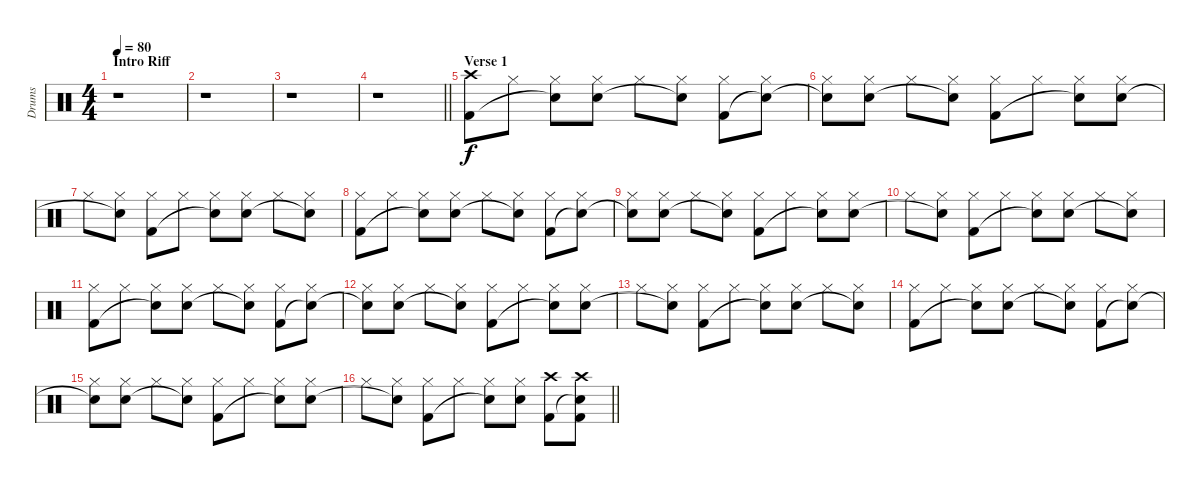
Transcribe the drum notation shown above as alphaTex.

\track ("Drums" "Drums") {instrument percussion}
\staff {score}
\articulation defaults
\ts (4 4)
\section ("" "Intro Riff")
\tempo 80
\clef neutral
\ks c
r.1{dy f} |
r.1 |
r.1 |
\barLineRight lightlight
r.1 |
\section ("" "Verse 1")
("Crash high (hit)" "Kick (hit) 2").8 "Hi-Hat (closed)".8 ("Hi-Hat (closed)" "Snare (hit)"{t}).8 ("Hi-Hat (closed)" "Electric Snare (hit)").8 "Hi-Hat (closed)".8 ("Hi-Hat (closed)" "Snare (hit)"{t}).8 ("Hi-Hat (closed)" "Kick (hit) 2").8 ("Hi-Hat (closed)" "Snare (hit)"{t}).8 |
("Hi-Hat (closed)" "Snare (hit)"{t}).8 ("Hi-Hat (closed)" "Electric Snare (hit)").8 "Hi-Hat (closed)".8 ("Hi-Hat (closed)" "Snare (hit)"{t}).8 ("Hi-Hat (closed)" "Kick (hit) 2").8 "Hi-Hat (closed)".8 ("Hi-Hat (closed)" "Snare (hit)"{t}).8 ("Hi-Hat (closed)" "Electric Snare (hit)").8 |
"Hi-Hat (closed)".8 ("Hi-Hat (closed)" "Snare (hit)"{t}).8 ("Hi-Hat (closed)" "Kick (hit) 2").8 "Hi-Hat (closed)".8 ("Hi-Hat (closed)" "Snare (hit)"{t}).8 ("Hi-Hat (closed)" "Electric Snare (hit)").8 "Hi-Hat (closed)".8 ("Hi-Hat (closed)" "Snare (hit)"{t}).8 |
("Hi-Hat (closed)" "Kick (hit) 2").8 "Hi-Hat (closed)".8 ("Hi-Hat (closed)" "Snare (hit)"{t}).8 ("Hi-Hat (closed)" "Electric Snare (hit)").8 "Hi-Hat (closed)".8 ("Hi-Hat (closed)" "Snare (hit)"{t}).8 ("Hi-Hat (closed)" "Kick (hit) 2").8 ("Hi-Hat (closed)" "Snare (hit)"{t}).8 |
("Hi-Hat (closed)" "Snare (hit)"{t}).8 ("Hi-Hat (closed)" "Electric Snare (hit)").8 "Hi-Hat (closed)".8 ("Hi-Hat (closed)" "Snare (hit)"{t}).8 ("Hi-Hat (closed)" "Kick (hit) 2").8 "Hi-Hat (closed)".8 ("Hi-Hat (closed)" "Snare (hit)"{t}).8 ("Hi-Hat (closed)" "Electric Snare (hit)").8 |
"Hi-Hat (closed)".8 ("Hi-Hat (closed)" "Snare (hit)"{t}).8 ("Hi-Hat (closed)" "Kick (hit) 2").8 "Hi-Hat (closed)".8 ("Hi-Hat (closed)" "Snare (hit)"{t}).8 ("Hi-Hat (closed)" "Electric Snare (hit)").8 "Hi-Hat (closed)".8 ("Hi-Hat (closed)" "Snare (hit)"{t}).8 |
("Hi-Hat (closed)" "Kick (hit) 2").8 "Hi-Hat (closed)".8 ("Hi-Hat (closed)" "Snare (hit)"{t}).8 ("Hi-Hat (closed)" "Electric Snare (hit)").8 "Hi-Hat (closed)".8 ("Hi-Hat (closed)" "Snare (hit)"{t}).8 ("Hi-Hat (closed)" "Kick (hit) 2").8 ("Hi-Hat (closed)" "Snare (hit)"{t}).8 |
("Hi-Hat (closed)" "Snare (hit)"{t}).8 ("Hi-Hat (closed)" "Electric Snare (hit)").8 "Hi-Hat (closed)".8 ("Hi-Hat (closed)" "Snare (hit)"{t}).8 ("Hi-Hat (closed)" "Kick (hit) 2").8 "Hi-Hat (closed)".8 ("Hi-Hat (closed)" "Snare (hit)"{t}).8 ("Hi-Hat (closed)" "Electric Snare (hit)").8 |
"Hi-Hat (closed)".8 ("Hi-Hat (closed)" "Snare (hit)"{t}).8 ("Hi-Hat (closed)" "Kick (hit) 2").8 "Hi-Hat (closed)".8 ("Hi-Hat (closed)" "Snare (hit)"{t}).8 ("Hi-Hat (closed)" "Electric Snare (hit)").8 "Hi-Hat (closed)".8 ("Hi-Hat (closed)" "Snare (hit)"{t}).8 |
("Hi-Hat (closed)" "Kick (hit) 2").8 "Hi-Hat (closed)".8 ("Hi-Hat (closed)" "Snare (hit)"{t}).8 ("Hi-Hat (closed)" "Electric Snare (hit)").8 "Hi-Hat (closed)".8 ("Hi-Hat (closed)" "Snare (hit)"{t}).8 ("Hi-Hat (closed)" "Kick (hit) 2").8 ("Hi-Hat (closed)" "Snare (hit)"{t}).8 |
("Hi-Hat (closed)" "Snare (hit)"{t}).8 ("Hi-Hat (closed)" "Electric Snare (hit)").8 "Hi-Hat (closed)".8 ("Hi-Hat (closed)" "Snare (hit)"{t}).8 ("Hi-Hat (closed)" "Kick (hit) 2").8 "Hi-Hat (closed)".8 ("Hi-Hat (closed)" "Snare (hit)"{t}).8 ("Hi-Hat (closed)" "Electric Snare (hit)").8 |
\barLineRight lightlight "Hi-Hat (closed)".8
("Hi-Hat (closed)" "Snare (hit)"{t}).8 ("Hi-Hat (closed)" "Kick (hit) 2").8 "Hi-Hat (closed)".8 ("Hi-Hat (closed)" "Snare (hit)"{t}).8 ("Hi-Hat (closed)" "Electric Snare (hit)").8 ("Crash high (hit)" "Kick (hit) 2").8 ("Crash high (hit)" "Snare (hit)"{t} "Kick (hit) 2").8
